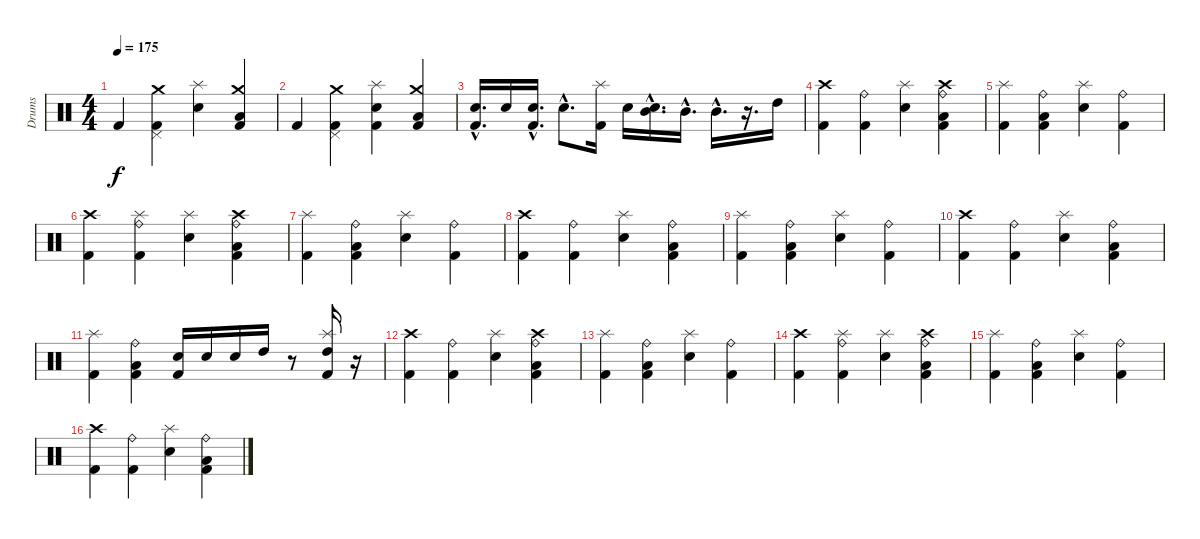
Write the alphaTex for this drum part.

\track ("Drums" "Drums") {instrument percussion}
\staff {score}
\articulation defaults
\ts (4 4)
\tempo 175
\clef neutral
\ks c "Kick (hit) 2".4{dy f}
("Kick (hit) 2" "Pedal Hi-Hat (hit)" "Crash medium (hit)").4 ("Electric Snare (hit)" "Splash (hit)").4 ("Kick (hit) 2" "Low Tom (hit)" "Crash medium (hit)").4 |
"Kick (hit) 2".4 ("Kick (hit) 2" "Pedal Hi-Hat (hit)" "Crash medium (hit)").4 ("Electric Snare (hit)" "Kick (hit) 2" "Splash (hit)").4 ("Kick (hit) 2" "Low Tom (hit)" "Crash medium (hit)").4 |
("Electric Snare (hit)"{hac} "Kick (hit) 2"{hac}).16{d} "Electric Snare (hit)".16 ("Electric Snare (hit)"{hac} "Kick (hit) 2"{hac}).16{d} "Electric Snare (hit)"{hac}.8{d} ("Kick (hit) 2" "Splash (hit)").16 "Electric Snare (hit)".16 ("Electric Snare (hit)"{hac} "Mid Tom (hit)"{hac}).16{d} "Mid Tom (hit)"{hac}.16{d} "Mid Tom (hit)"{hac}.16{d} r.16{d} "High Tom (hit)".16 |
("Kick (hit) 2" "Crash high (hit)").4 ("Kick (hit) 2" "Ride (bell)").4 ("Splash (hit)" "Electric Snare (hit)").4 ("Kick (hit) 2" "Low Tom (hit)" "Ride (bell)" "Crash high (hit)").4 |
("Kick (hit) 2" "Splash (hit)").4 ("Kick (hit) 2" "Low Tom (hit)" "Ride (bell)").4 ("Electric Snare (hit)" "Splash (hit)").4 ("Kick (hit) 2" "Ride (bell)").4 |
("Kick (hit) 2" "Crash high (hit)").4 ("Kick (hit) 2" "Splash (hit)" "Ride (bell)").4 ("Splash (hit)" "Electric Snare (hit)").4 ("Kick (hit) 2" "Low Tom (hit)" "Ride (bell)" "Crash high (hit)").4 |
("Kick (hit) 2" "Splash (hit)").4 ("Kick (hit) 2" "Low Tom (hit)" "Ride (bell)").4 ("Electric Snare (hit)" "Splash (hit)").4 ("Kick (hit) 2" "Ride (bell)").4 |
("Kick (hit) 2" "Crash high (hit)").4 ("Kick (hit) 2" "Ride (bell)").4 ("Splash (hit)" "Electric Snare (hit)").4 ("Kick (hit) 2" "Low Tom (hit)" "Ride (bell)").4 |
("Kick (hit) 2" "Splash (hit)").4 ("Kick (hit) 2" "Low Tom (hit)" "Ride (bell)").4 ("Electric Snare (hit)" "Splash (hit)").4 ("Kick (hit) 2" "Ride (bell)").4 |
("Kick (hit) 2" "Crash high (hit)").4 ("Kick (hit) 2" "Ride (bell)").4 ("Splash (hit)" "Electric Snare (hit)").4 ("Kick (hit) 2" "Low Tom (hit)" "Ride (bell)").4 |
("Kick (hit) 2" "Splash (hit)").4 ("Kick (hit) 2" "Low Tom (hit)" "Ride (bell)").4 ("Electric Snare (hit)" "Kick (hit) 2").16 "Electric Snare (hit)".16 "Electric Snare (hit)".16 "High Tom (hit)".16 r.8 ("High Tom (hit)" "Splash (hit)" "Kick (hit) 2").16 r.16 |
("Kick (hit) 2" "Crash high (hit)").4 ("Kick (hit) 2" "Ride (bell)").4 ("Splash (hit)" "Electric Snare (hit)").4 ("Kick (hit) 2" "Low Tom (hit)" "Ride (bell)" "Crash high (hit)").4 |
("Kick (hit) 2" "Splash (hit)").4 ("Kick (hit) 2" "Low Tom (hit)" "Ride (bell)").4 ("Electric Snare (hit)" "Splash (hit)").4 ("Kick (hit) 2" "Ride (bell)").4 |
("Kick (hit) 2" "Crash high (hit)").4 ("Kick (hit) 2" "Splash (hit)" "Ride (bell)").4 ("Splash (hit)" "Electric Snare (hit)").4 ("Kick (hit) 2" "Low Tom (hit)" "Ride (bell)" "Crash high (hit)").4 |
("Kick (hit) 2" "Splash (hit)").4 ("Kick (hit) 2" "Low Tom (hit)" "Ride (bell)").4 ("Electric Snare (hit)" "Splash (hit)").4 ("Kick (hit) 2" "Ride (bell)").4 |
("Kick (hit) 2" "Crash high (hit)").4 ("Kick (hit) 2" "Ride (bell)").4 ("Splash (hit)" "Electric Snare (hit)").4 ("Kick (hit) 2" "Low Tom (hit)" "Ride (bell)").4
